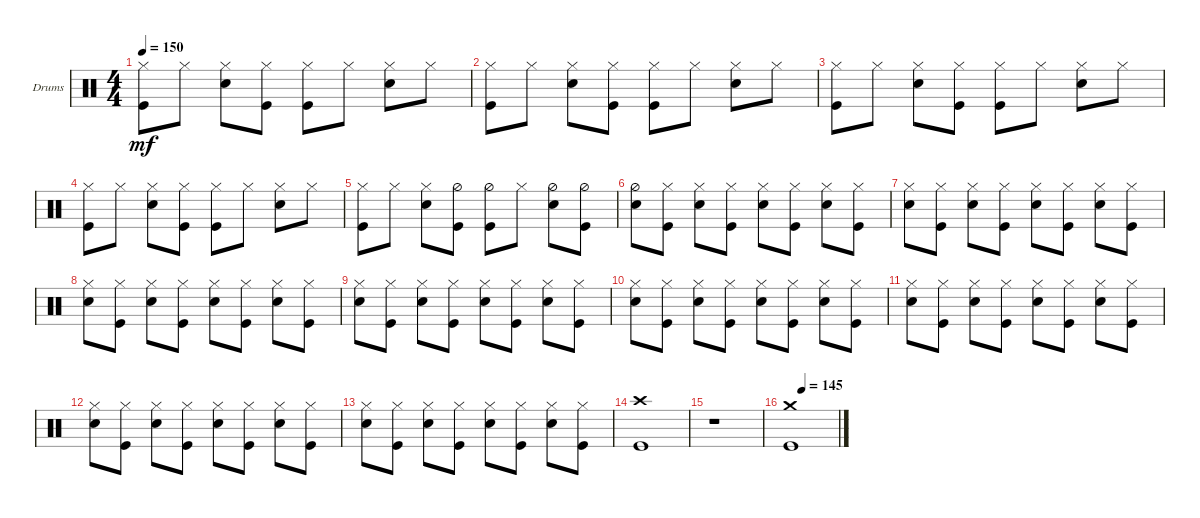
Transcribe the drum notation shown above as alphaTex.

\defaultSystemsLayout 4
\bracketExtendMode groupsimilarinstruments
\firstSystemTrackNameOrientation horizontal
\otherSystemsTrackNameOrientation horizontal
\track ("Drums" "Drums") {instrument percussion}
\staff {score}
\articulation defaults
\ts (4 4)
\tempo 150
\clef neutral
\ks c
("Kick (hit)" "Hi-Hat (closed)").8{dy mf} "Hi-Hat (closed)".8 ("Snare (hit) 2" "Hi-Hat (closed)").8 ("Kick (hit)" "Hi-Hat (closed)").8 ("Kick (hit)" "Hi-Hat (closed)").8 "Hi-Hat (closed)".8 ("Snare (hit) 2" "Hi-Hat (closed)").8 "Hi-Hat (closed)".8 |
("Kick (hit)" "Hi-Hat (closed)").8 "Hi-Hat (closed)".8 ("Snare (hit) 2" "Hi-Hat (closed)").8 ("Kick (hit)" "Hi-Hat (closed)").8 ("Kick (hit)" "Hi-Hat (closed)").8 "Hi-Hat (closed)".8 ("Snare (hit) 2" "Hi-Hat (closed)").8 "Hi-Hat (closed)".8 |
("Kick (hit)" "Hi-Hat (closed)").8 "Hi-Hat (closed)".8 ("Snare (hit) 2" "Hi-Hat (closed)").8 ("Kick (hit)" "Hi-Hat (closed)").8 ("Kick (hit)" "Hi-Hat (closed)").8 "Hi-Hat (closed)".8 ("Snare (hit) 2" "Hi-Hat (closed)").8 "Hi-Hat (closed)".8 |
("Kick (hit)" "Hi-Hat (closed)").8 "Hi-Hat (closed)".8 ("Snare (hit) 2" "Hi-Hat (closed)").8 ("Kick (hit)" "Hi-Hat (closed)").8 ("Kick (hit)" "Hi-Hat (closed)").8 "Hi-Hat (closed)".8 ("Snare (hit) 2" "Hi-Hat (closed)").8 "Hi-Hat (closed)".8 |
("Kick (hit)" "Hi-Hat (closed)").8 "Hi-Hat (closed)".8 ("Snare (hit) 2" "Hi-Hat (closed)").8 ("Kick (hit)" "Hi-Hat (half)").8 ("Kick (hit)" "Hi-Hat (half)").8 "Hi-Hat (closed)".8 ("Snare (hit) 2" "Hi-Hat (half)").8 ("Hi-Hat (half)" "Kick (hit)").8 |
("Snare (hit) 2" "Hi-Hat (half)").8 ("Kick (hit)" "Hi-Hat (closed)").8 ("Snare (hit) 2" "Hi-Hat (closed)").8 ("Kick (hit)" "Hi-Hat (closed)").8 ("Snare (hit) 2" "Hi-Hat (closed)").8 ("Kick (hit)" "Hi-Hat (closed)").8 ("Snare (hit) 2" "Hi-Hat (closed)").8 ("Kick (hit)" "Hi-Hat (closed)").8 |
("Snare (hit) 2" "Hi-Hat (closed)").8 ("Kick (hit)" "Hi-Hat (closed)").8 ("Snare (hit) 2" "Hi-Hat (closed)").8 ("Kick (hit)" "Hi-Hat (closed)").8 ("Snare (hit) 2" "Hi-Hat (closed)").8 ("Kick (hit)" "Hi-Hat (closed)").8 ("Snare (hit) 2" "Hi-Hat (closed)").8 ("Kick (hit)" "Hi-Hat (closed)").8 |
("Snare (hit) 2" "Hi-Hat (closed)").8 ("Kick (hit)" "Hi-Hat (closed)").8 ("Snare (hit) 2" "Hi-Hat (closed)").8 ("Kick (hit)" "Hi-Hat (closed)").8 ("Snare (hit) 2" "Hi-Hat (closed)").8 ("Kick (hit)" "Hi-Hat (closed)").8 ("Snare (hit) 2" "Hi-Hat (closed)").8 ("Kick (hit)" "Hi-Hat (closed)").8 |
("Snare (hit) 2" "Hi-Hat (closed)").8 ("Kick (hit)" "Hi-Hat (closed)").8 ("Snare (hit) 2" "Hi-Hat (closed)").8 ("Kick (hit)" "Hi-Hat (closed)").8 ("Snare (hit) 2" "Hi-Hat (closed)").8 ("Kick (hit)" "Hi-Hat (closed)").8 ("Snare (hit) 2" "Hi-Hat (closed)").8 ("Kick (hit)" "Hi-Hat (closed)").8 |
("Snare (hit) 2" "Hi-Hat (closed)").8 ("Kick (hit)" "Hi-Hat (closed)").8 ("Snare (hit) 2" "Hi-Hat (closed)").8 ("Kick (hit)" "Hi-Hat (closed)").8 ("Snare (hit) 2" "Hi-Hat (closed)").8 ("Kick (hit)" "Hi-Hat (closed)").8 ("Snare (hit) 2" "Hi-Hat (closed)").8 ("Kick (hit)" "Hi-Hat (closed)").8 |
("Snare (hit) 2" "Hi-Hat (closed)").8 ("Kick (hit)" "Hi-Hat (closed)").8 ("Snare (hit) 2" "Hi-Hat (closed)").8 ("Kick (hit)" "Hi-Hat (closed)").8 ("Snare (hit) 2" "Hi-Hat (closed)").8 ("Kick (hit)" "Hi-Hat (closed)").8 ("Snare (hit) 2" "Hi-Hat (closed)").8 ("Kick (hit)" "Hi-Hat (closed)").8 |
("Snare (hit) 2" "Hi-Hat (closed)").8 ("Kick (hit)" "Hi-Hat (closed)").8 ("Snare (hit) 2" "Hi-Hat (closed)").8 ("Kick (hit)" "Hi-Hat (closed)").8 ("Snare (hit) 2" "Hi-Hat (closed)").8 ("Kick (hit)" "Hi-Hat (closed)").8 ("Snare (hit) 2" "Hi-Hat (closed)").8 ("Kick (hit)" "Hi-Hat (closed)").8 |
("Snare (hit) 2" "Hi-Hat (closed)").8 ("Kick (hit)" "Hi-Hat (closed)").8 ("Snare (hit) 2" "Hi-Hat (closed)").8 ("Kick (hit)" "Hi-Hat (closed)").8 ("Snare (hit) 2" "Hi-Hat (closed)").8 ("Kick (hit)" "Hi-Hat (closed)").8 ("Snare (hit) 2" "Hi-Hat (closed)").8 ("Kick (hit)" "Hi-Hat (closed)").8 |
("Kick (hit)" "Crash high (hit)").1 |
r.1 |
\tempo (145 0.25)
("Kick (hit)" "Crash medium (hit)").1
